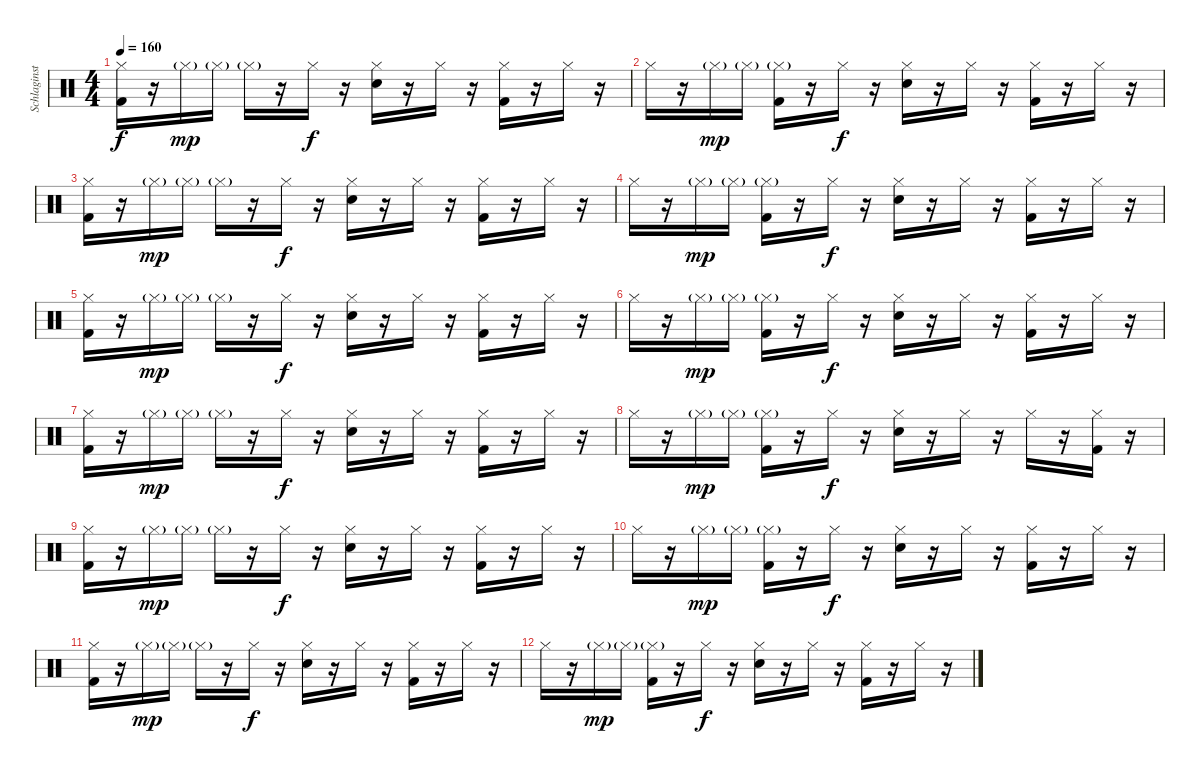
\track ("Schlaginstrumente - Auswahl" "Schlaginst") {instrument percussion}
\staff {score}
\articulation defaults
\ts (4 4)
\tempo 160
\clef neutral
\ks c
("Hi-Hat (closed)" "Kick (hit) 2").16{dy f} r.16 "Hi-Hat (closed)"{g}.16{dy mp} "Hi-Hat (closed)"{g}.16 "Hi-Hat (closed)"{g}.16 r.16 "Hi-Hat (closed)".16{dy f} r.16 ("Hi-Hat (closed)" "Snare (hit) 2").16 r.16 "Hi-Hat (closed)".16 r.16 ("Hi-Hat (closed)" "Kick (hit) 2").16 r.16 "Hi-Hat (closed)".16 r.16 |
"Hi-Hat (closed)".16 r.16 "Hi-Hat (closed)"{g}.16{dy mp} "Hi-Hat (closed)"{g}.16 ("Hi-Hat (closed)"{g} "Kick (hit) 2").16 r.16 "Hi-Hat (closed)".16{dy f} r.16 ("Hi-Hat (closed)" "Snare (hit) 2").16 r.16 "Hi-Hat (closed)".16 r.16 ("Hi-Hat (closed)" "Kick (hit) 2").16 r.16 "Hi-Hat (closed)".16 r.16 |
("Hi-Hat (closed)" "Kick (hit) 2").16 r.16 "Hi-Hat (closed)"{g}.16{dy mp} "Hi-Hat (closed)"{g}.16 "Hi-Hat (closed)"{g}.16 r.16 "Hi-Hat (closed)".16{dy f} r.16 ("Hi-Hat (closed)" "Snare (hit) 2").16 r.16 "Hi-Hat (closed)".16 r.16 ("Hi-Hat (closed)" "Kick (hit) 2").16 r.16 "Hi-Hat (closed)".16 r.16 |
"Hi-Hat (closed)".16 r.16 "Hi-Hat (closed)"{g}.16{dy mp} "Hi-Hat (closed)"{g}.16 ("Hi-Hat (closed)"{g} "Kick (hit) 2").16 r.16 "Hi-Hat (closed)".16{dy f} r.16 ("Hi-Hat (closed)" "Snare (hit) 2").16 r.16 "Hi-Hat (closed)".16 r.16 ("Hi-Hat (closed)" "Kick (hit) 2").16 r.16 "Hi-Hat (closed)".16 r.16 |
("Hi-Hat (closed)" "Kick (hit) 2").16 r.16 "Hi-Hat (closed)"{g}.16{dy mp} "Hi-Hat (closed)"{g}.16 "Hi-Hat (closed)"{g}.16 r.16 "Hi-Hat (closed)".16{dy f} r.16 ("Hi-Hat (closed)" "Snare (hit) 2").16 r.16 "Hi-Hat (closed)".16 r.16 ("Hi-Hat (closed)" "Kick (hit) 2").16 r.16 "Hi-Hat (closed)".16 r.16 |
"Hi-Hat (closed)".16 r.16 "Hi-Hat (closed)"{g}.16{dy mp} "Hi-Hat (closed)"{g}.16 ("Hi-Hat (closed)"{g} "Kick (hit) 2").16 r.16 "Hi-Hat (closed)".16{dy f} r.16 ("Hi-Hat (closed)" "Snare (hit) 2").16 r.16 "Hi-Hat (closed)".16 r.16 ("Hi-Hat (closed)" "Kick (hit) 2").16 r.16 "Hi-Hat (closed)".16 r.16 |
("Hi-Hat (closed)" "Kick (hit) 2").16 r.16 "Hi-Hat (closed)"{g}.16{dy mp} "Hi-Hat (closed)"{g}.16 "Hi-Hat (closed)"{g}.16 r.16 "Hi-Hat (closed)".16{dy f} r.16 ("Hi-Hat (closed)" "Snare (hit) 2").16 r.16 "Hi-Hat (closed)".16 r.16 ("Hi-Hat (closed)" "Kick (hit) 2").16 r.16 "Hi-Hat (closed)".16 r.16 |
"Hi-Hat (closed)".16 r.16 "Hi-Hat (closed)"{g}.16{dy mp} "Hi-Hat (closed)"{g}.16 ("Hi-Hat (closed)"{g} "Kick (hit) 2").16 r.16 "Hi-Hat (closed)".16{dy f} r.16 ("Hi-Hat (closed)" "Snare (hit) 2").16 r.16 "Hi-Hat (closed)".16 r.16 "Hi-Hat (closed)".16 r.16 ("Hi-Hat (closed)" "Kick (hit) 2").16 r.16 |
("Hi-Hat (closed)" "Kick (hit) 2").16 r.16 "Hi-Hat (closed)"{g}.16{dy mp} "Hi-Hat (closed)"{g}.16 "Hi-Hat (closed)"{g}.16 r.16 "Hi-Hat (closed)".16{dy f} r.16 ("Hi-Hat (closed)" "Snare (hit) 2").16 r.16 "Hi-Hat (closed)".16 r.16 ("Hi-Hat (closed)" "Kick (hit) 2").16 r.16 "Hi-Hat (closed)".16 r.16 |
"Hi-Hat (closed)".16 r.16 "Hi-Hat (closed)"{g}.16{dy mp} "Hi-Hat (closed)"{g}.16 ("Hi-Hat (closed)"{g} "Kick (hit) 2").16 r.16 "Hi-Hat (closed)".16{dy f} r.16 ("Hi-Hat (closed)" "Snare (hit) 2").16 r.16 "Hi-Hat (closed)".16 r.16 ("Hi-Hat (closed)" "Kick (hit) 2").16 r.16 "Hi-Hat (closed)".16 r.16 |
("Hi-Hat (closed)" "Kick (hit) 2").16 r.16 "Hi-Hat (closed)"{g}.16{dy mp} "Hi-Hat (closed)"{g}.16 "Hi-Hat (closed)"{g}.16 r.16 "Hi-Hat (closed)".16{dy f} r.16 ("Hi-Hat (closed)" "Snare (hit) 2").16 r.16 "Hi-Hat (closed)".16 r.16 ("Hi-Hat (closed)" "Kick (hit) 2").16 r.16 "Hi-Hat (closed)".16 r.16 |
"Hi-Hat (closed)".16 r.16 "Hi-Hat (closed)"{g}.16{dy mp} "Hi-Hat (closed)"{g}.16 ("Hi-Hat (closed)"{g} "Kick (hit) 2").16 r.16 "Hi-Hat (closed)".16{dy f} r.16 ("Hi-Hat (closed)" "Snare (hit) 2").16 r.16 "Hi-Hat (closed)".16 r.16 ("Hi-Hat (closed)" "Kick (hit) 2").16 r.16 "Hi-Hat (closed)".16 r.16
